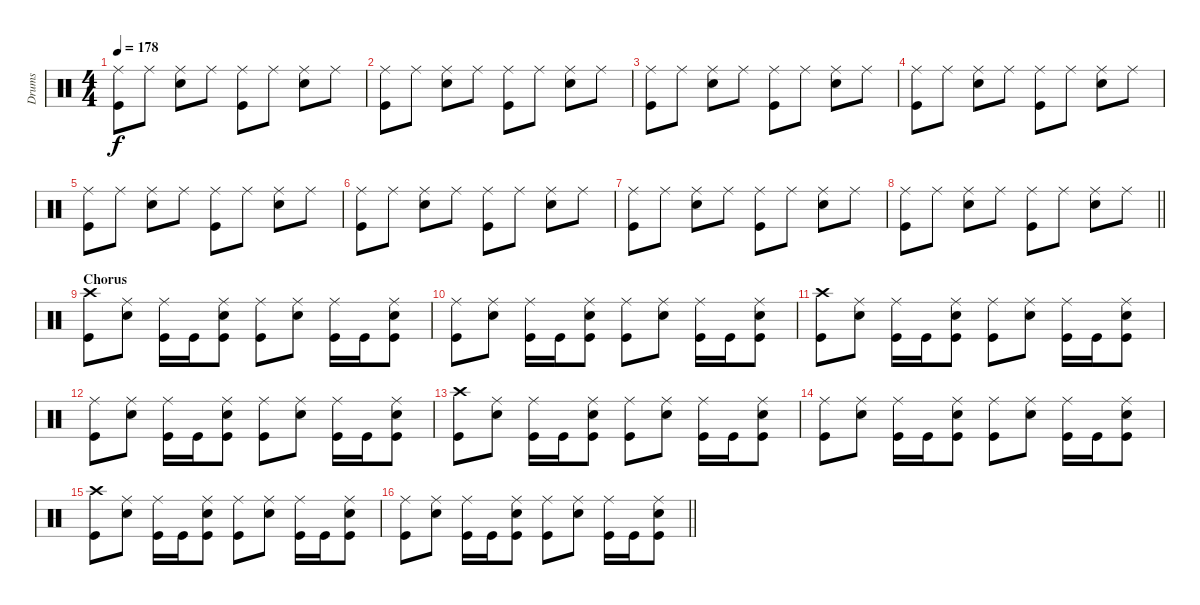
\track ("Drums" "Drums") {instrument percussion}
\staff {score}
\articulation defaults
\ts (4 4)
\tempo 178
\clef neutral
\ks c
("Kick (hit)" "Ride (middle)").8{dy f} "Ride (middle)".8 ("Ride (middle)" "Snare (hit) 2").8 "Ride (middle)".8 ("Ride (middle)" "Kick (hit)").8 "Ride (middle)".8 ("Ride (middle)" "Snare (hit) 2").8 "Ride (middle)".8 |
("Ride (middle)" "Kick (hit)").8 "Ride (middle)".8 ("Ride (middle)" "Snare (hit) 2").8 "Ride (middle)".8 ("Ride (middle)" "Kick (hit)").8 "Ride (middle)".8 ("Ride (middle)" "Snare (hit) 2").8 "Ride (middle)".8 |
("Kick (hit)" "Ride (middle)").8 "Ride (middle)".8 ("Ride (middle)" "Snare (hit) 2").8 "Ride (middle)".8 ("Ride (middle)" "Kick (hit)").8 "Ride (middle)".8 ("Ride (middle)" "Snare (hit) 2").8 "Ride (middle)".8 |
("Ride (middle)" "Kick (hit)").8 "Ride (middle)".8 ("Ride (middle)" "Snare (hit) 2").8 "Ride (middle)".8 ("Ride (middle)" "Kick (hit)").8 "Ride (middle)".8 ("Ride (middle)" "Snare (hit) 2").8 "Ride (middle)".8 |
("Kick (hit)" "Ride (middle)").8 "Ride (middle)".8 ("Ride (middle)" "Snare (hit) 2").8 "Ride (middle)".8 ("Ride (middle)" "Kick (hit)").8 "Ride (middle)".8 ("Ride (middle)" "Snare (hit) 2").8 "Ride (middle)".8 |
("Ride (middle)" "Kick (hit)").8 "Ride (middle)".8 ("Ride (middle)" "Snare (hit) 2").8 "Ride (middle)".8 ("Ride (middle)" "Kick (hit)").8 "Ride (middle)".8 ("Ride (middle)" "Snare (hit) 2").8 "Ride (middle)".8 |
("Kick (hit)" "Ride (middle)").8 "Ride (middle)".8 ("Ride (middle)" "Snare (hit) 2").8 "Ride (middle)".8 ("Ride (middle)" "Kick (hit)").8 "Ride (middle)".8 ("Ride (middle)" "Snare (hit) 2").8 "Ride (middle)".8 |
\barLineRight lightlight
("Ride (middle)" "Kick (hit)").8 "Ride (middle)".8 ("Ride (middle)" "Snare (hit) 2").8 "Ride (middle)".8 ("Ride (middle)" "Kick (hit)").8 "Ride (middle)".8 ("Ride (middle)" "Snare (hit) 2").8 "Ride (middle)".8 |
\section ("" "Chorus")
("Kick (hit)" "Crash high (hit)").8 ("Snare (hit) 2" "Ride (middle)").8 ("Kick (hit)" "Ride (middle)").16 "Kick (hit)".16 ("Kick (hit)" "Ride (middle)" "Snare (hit) 2").8 ("Kick (hit)" "Ride (middle)").8 ("Snare (hit) 2" "Ride (middle)").8 ("Kick (hit)" "Ride (middle)").16 "Kick (hit)".16 ("Kick (hit)" "Ride (middle)" "Snare (hit) 2").8 |
("Kick (hit)" "Ride (middle)").8 ("Snare (hit) 2" "Ride (middle)").8 ("Kick (hit)" "Ride (middle)").16 "Kick (hit)".16 ("Kick (hit)" "Ride (middle)" "Snare (hit) 2").8 ("Kick (hit)" "Ride (middle)").8 ("Snare (hit) 2" "Ride (middle)").8 ("Kick (hit)" "Ride (middle)").16 "Kick (hit)".16 ("Kick (hit)" "Ride (middle)" "Snare (hit) 2").8 |
("Kick (hit)" "Crash high (hit)").8 ("Snare (hit) 2" "Ride (middle)").8 ("Kick (hit)" "Ride (middle)").16 "Kick (hit)".16 ("Kick (hit)" "Ride (middle)" "Snare (hit) 2").8 ("Kick (hit)" "Ride (middle)").8 ("Snare (hit) 2" "Ride (middle)").8 ("Kick (hit)" "Ride (middle)").16 "Kick (hit)".16 ("Kick (hit)" "Ride (middle)" "Snare (hit) 2").8 |
("Kick (hit)" "Ride (middle)").8 ("Snare (hit) 2" "Ride (middle)").8 ("Kick (hit)" "Ride (middle)").16 "Kick (hit)".16 ("Kick (hit)" "Ride (middle)" "Snare (hit) 2").8 ("Kick (hit)" "Ride (middle)").8 ("Snare (hit) 2" "Ride (middle)").8 ("Kick (hit)" "Ride (middle)").16 "Kick (hit)".16 ("Kick (hit)" "Ride (middle)" "Snare (hit) 2").8 |
("Kick (hit)" "Crash high (hit)").8 ("Snare (hit) 2" "Ride (middle)").8 ("Kick (hit)" "Ride (middle)").16 "Kick (hit)".16 ("Kick (hit)" "Ride (middle)" "Snare (hit) 2").8 ("Kick (hit)" "Ride (middle)").8 ("Snare (hit) 2" "Ride (middle)").8 ("Kick (hit)" "Ride (middle)").16 "Kick (hit)".16 ("Kick (hit)" "Ride (middle)" "Snare (hit) 2").8 |
("Kick (hit)" "Ride (middle)").8 ("Snare (hit) 2" "Ride (middle)").8 ("Kick (hit)" "Ride (middle)").16 "Kick (hit)".16 ("Kick (hit)" "Ride (middle)" "Snare (hit) 2").8 ("Kick (hit)" "Ride (middle)").8 ("Snare (hit) 2" "Ride (middle)").8 ("Kick (hit)" "Ride (middle)").16 "Kick (hit)".16 ("Kick (hit)" "Ride (middle)" "Snare (hit) 2").8 |
("Kick (hit)" "Crash high (hit)").8 ("Snare (hit) 2" "Ride (middle)").8 ("Kick (hit)" "Ride (middle)").16 "Kick (hit)".16 ("Kick (hit)" "Ride (middle)" "Snare (hit) 2").8 ("Kick (hit)" "Ride (middle)").8 ("Snare (hit) 2" "Ride (middle)").8 ("Kick (hit)" "Ride (middle)").16 "Kick (hit)".16 ("Kick (hit)" "Ride (middle)" "Snare (hit) 2").8 |
\barLineRight lightlight
("Kick (hit)" "Ride (middle)").8 ("Snare (hit) 2" "Ride (middle)").8 ("Kick (hit)" "Ride (middle)").16 "Kick (hit)".16 ("Kick (hit)" "Ride (middle)" "Snare (hit) 2").8 ("Kick (hit)" "Ride (middle)").8 ("Snare (hit) 2" "Ride (middle)").8 ("Kick (hit)" "Ride (middle)").16 "Kick (hit)".16 ("Kick (hit)" "Ride (middle)" "Snare (hit) 2").8
